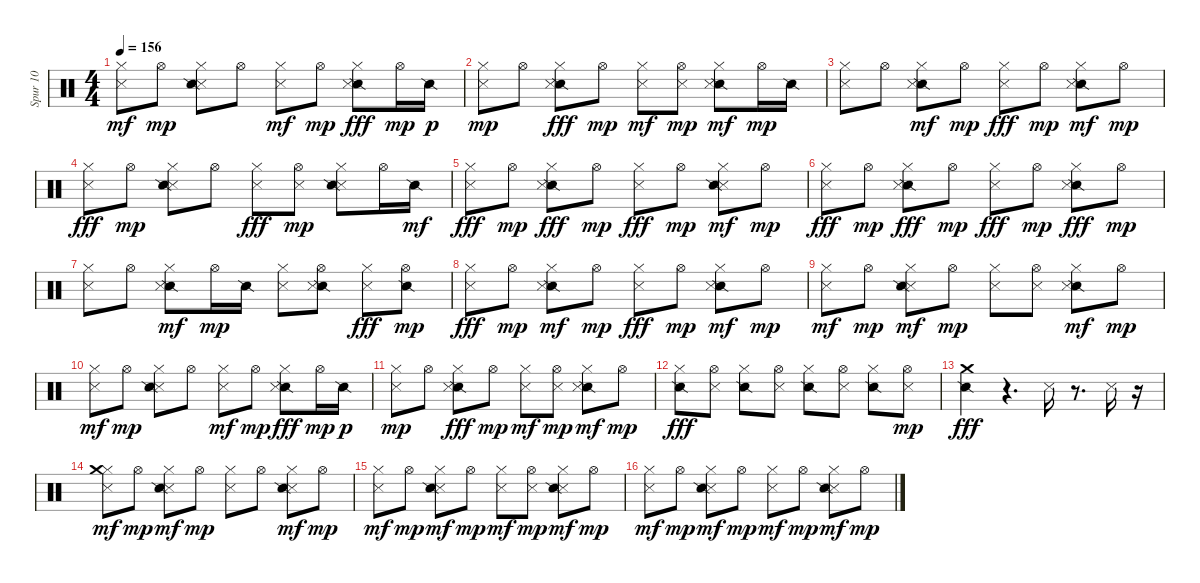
\track ("Spur 10" "Spur 10") {instrument percussion}
\staff {score}
\articulation defaults
\ts (4 4)
\tempo 156
\clef neutral
\ks c
("Metronome (hit)" "Hi-Hat (closed)").8{dy mf} "Hi-Hat (open)".8{dy mp} ("Metronome (hit)" "Snare (side stick) 2" "Hi-Hat (closed)").8 "Hi-Hat (open)".8 ("Metronome (hit)" "Hi-Hat (closed)").8{dy mf} "Hi-Hat (open)".8{dy mp} ("Snare (side stick) 2" "Metronome (hit)" "Hi-Hat (closed)").8{dy fff} "Hi-Hat (open)".16{dy mp} "Snare (side stick) 2".16{dy p} |
("Metronome (hit)" "Hi-Hat (closed)").8{dy mp} "Hi-Hat (open)".8 ("Snare (side stick) 2" "Metronome (hit)" "Hi-Hat (closed)").8{dy fff} "Hi-Hat (open)".8{dy mp} ("Metronome (hit)" "Hi-Hat (closed)").8{dy mf} ("Metronome (hit)" "Hi-Hat (open)").8{dy mp} ("Snare (side stick) 2" "Metronome (hit)" "Hi-Hat (closed)").8{dy mf} "Hi-Hat (open)".16{dy mp} "Snare (side stick) 2".16 |
("Metronome (hit)" "Hi-Hat (closed)").8 "Hi-Hat (open)".8 ("Snare (side stick) 2" "Metronome (hit)" "Hi-Hat (closed)").8{dy mf} "Hi-Hat (open)".8{dy mp} ("Metronome (hit)" "Hi-Hat (closed)").8{dy fff} "Hi-Hat (open)".8{dy mp} ("Snare (side stick) 2" "Metronome (hit)" "Hi-Hat (closed)").8{dy mf} "Hi-Hat (open)".8{dy mp} |
("Metronome (hit)" "Hi-Hat (closed)").8{dy fff} "Hi-Hat (open)".8{dy mp} ("Metronome (hit)" "Snare (side stick) 2" "Hi-Hat (closed)").8 "Hi-Hat (open)".8 ("Metronome (hit)" "Hi-Hat (closed)").8{dy fff} ("Metronome (hit)" "Hi-Hat (open)").8{dy mp} ("Metronome (hit)" "Snare (side stick) 2" "Hi-Hat (closed)").8 "Hi-Hat (open)".16 "Snare (side stick) 2".16{dy mf} |
("Metronome (hit)" "Hi-Hat (closed)").8{dy fff} "Hi-Hat (open)".8{dy mp} ("Snare (side stick) 2" "Metronome (hit)" "Hi-Hat (closed)").8{dy fff} "Hi-Hat (open)".8{dy mp} ("Metronome (hit)" "Hi-Hat (closed)").8{dy fff} "Hi-Hat (open)".8{dy mp} ("Metronome (hit)" "Snare (side stick) 2" "Hi-Hat (closed)").8{dy mf} "Hi-Hat (open)".8{dy mp} |
("Metronome (hit)" "Hi-Hat (closed)").8{dy fff} "Hi-Hat (open)".8{dy mp} ("Hi-Hat (closed)" "Snare (side stick) 2" "Metronome (hit)").8{dy fff} "Hi-Hat (open)".8{dy mp} ("Hi-Hat (closed)" "Metronome (hit)").8{dy fff} "Hi-Hat (open)".8{dy mp} ("Snare (side stick) 2" "Hi-Hat (closed)" "Metronome (hit)").8{dy fff} "Hi-Hat (open)".8{dy mp} |
("Metronome (hit)" "Hi-Hat (closed)").8 "Hi-Hat (open)".8 ("Snare (side stick) 2" "Metronome (hit)" "Hi-Hat (closed)").8{dy mf} "Hi-Hat (open)".16{dy mp} "Snare (side stick) 2".16 ("Metronome (hit)" "Hi-Hat (closed)").8 ("Snare (side stick) 2" "Metronome (hit)" "Hi-Hat (open)").8 ("Metronome (hit)" "Hi-Hat (closed)").8{dy fff} ("Snare (side stick) 2" "Hi-Hat (open)").8{dy mp} |
("Metronome (hit)" "Hi-Hat (closed)").8{dy fff} "Hi-Hat (open)".8{dy mp} ("Snare (side stick) 2" "Metronome (hit)" "Hi-Hat (closed)").8{dy mf} "Hi-Hat (open)".8{dy mp} ("Metronome (hit)" "Hi-Hat (closed)").8{dy fff} "Hi-Hat (open)".8{dy mp} ("Snare (side stick) 2" "Metronome (hit)" "Hi-Hat (closed)").8{dy mf} "Hi-Hat (open)".8{dy mp} |
("Metronome (hit)" "Hi-Hat (closed)").8{dy mf} "Hi-Hat (open)".8{dy mp} ("Metronome (hit)" "Snare (side stick) 2" "Hi-Hat (closed)").8{dy mf} "Hi-Hat (open)".8{dy mp} ("Metronome (hit)" "Hi-Hat (closed)").8 ("Metronome (hit)" "Hi-Hat (open)").8 ("Snare (side stick) 2" "Metronome (hit)" "Hi-Hat (closed)").8{dy mf} "Hi-Hat (open)".8{dy mp} |
("Metronome (hit)" "Hi-Hat (closed)").8{dy mf} "Hi-Hat (open)".8{dy mp} ("Metronome (hit)" "Snare (side stick) 2" "Hi-Hat (closed)").8 "Hi-Hat (open)".8 ("Metronome (hit)" "Hi-Hat (closed)").8{dy mf} "Hi-Hat (open)".8{dy mp} ("Snare (side stick) 2" "Metronome (hit)" "Hi-Hat (closed)").8{dy fff} "Hi-Hat (open)".16{dy mp} "Snare (side stick) 2".16{dy p} |
("Metronome (hit)" "Hi-Hat (closed)").8{dy mp} "Hi-Hat (open)".8 ("Snare (side stick) 2" "Metronome (hit)" "Hi-Hat (closed)").8{dy fff} "Hi-Hat (open)".8{dy mp} ("Metronome (hit)" "Hi-Hat (closed)").8{dy mf} ("Metronome (hit)" "Hi-Hat (open)").8{dy mp} ("Snare (side stick) 2" "Metronome (hit)" "Hi-Hat (closed)").8{dy mf} "Hi-Hat (open)".8{dy mp} |
("Hi-Hat (closed)" "Snare (side stick) 2").8{dy fff} ("Hi-Hat (open)" "Metronome (hit)").8 ("Hi-Hat (closed)" "Snare (side stick) 2").8 ("Hi-Hat (open)" "Metronome (hit)").8 ("Hi-Hat (closed)" "Snare (side stick) 2").8 ("Hi-Hat (open)" "Metronome (hit)").8 ("Hi-Hat (closed)" "Snare (side stick) 2").8 ("Metronome (hit)" "Hi-Hat (open)").8{dy mp} |
("Crash medium (hit)" "Snare (side stick) 2").4{dy fff} r.4{d} "Metronome (hit)".16 r.8{d} "Metronome (hit)".16 r.16 |
("Metronome (hit)" "Hi-Hat (closed)" "Crash medium (hit)").8{dy mf} "Hi-Hat (open)".8{dy mp} ("Metronome (hit)" "Snare (side stick) 2" "Hi-Hat (closed)").8{dy mf} "Hi-Hat (open)".8{dy mp} ("Metronome (hit)" "Hi-Hat (closed)").8 "Hi-Hat (open)".8 ("Metronome (hit)" "Snare (side stick) 2" "Hi-Hat (closed)").8{dy mf} "Hi-Hat (open)".8{dy mp} |
("Metronome (hit)" "Hi-Hat (closed)").8{dy mf} "Hi-Hat (open)".8{dy mp} ("Metronome (hit)" "Snare (side stick) 2" "Hi-Hat (closed)").8{dy mf} "Hi-Hat (open)".8{dy mp} ("Metronome (hit)" "Hi-Hat (closed)").8{dy mf} ("Metronome (hit)" "Hi-Hat (open)").8{dy mp} ("Metronome (hit)" "Snare (side stick) 2" "Hi-Hat (closed)").8{dy mf} "Hi-Hat (open)".8{dy mp} |
("Metronome (hit)" "Hi-Hat (closed)").8{dy mf} "Hi-Hat (open)".8{dy mp} ("Metronome (hit)" "Snare (side stick) 2" "Hi-Hat (closed)").8{dy mf} "Hi-Hat (open)".8{dy mp} ("Metronome (hit)" "Hi-Hat (closed)").8{dy mf} "Hi-Hat (open)".8{dy mp} ("Metronome (hit)" "Snare (side stick) 2" "Hi-Hat (closed)").8{dy mf} "Hi-Hat (open)".8{dy mp}
